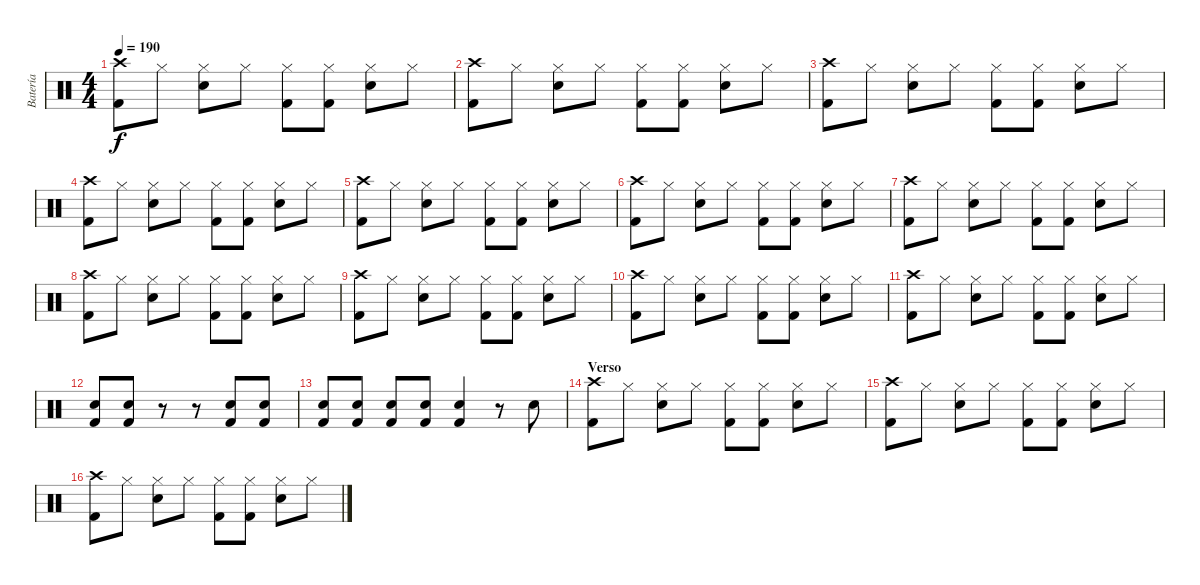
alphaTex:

\track ("Batería" "Batería") {instrument percussion}
\staff {score}
\articulation defaults
\ts (4 4)
\tempo 190
\clef neutral
\ks c
("Crash high (hit)" "Kick (hit) 2").8{dy f} "Hi-Hat (closed)".8 ("Hi-Hat (closed)" "Snare (hit) 2").8 "Hi-Hat (closed)".8 ("Hi-Hat (closed)" "Kick (hit) 2").8 ("Hi-Hat (closed)" "Kick (hit) 2").8 ("Hi-Hat (closed)" "Snare (hit) 2").8 "Hi-Hat (closed)".8 |
("Crash high (hit)" "Kick (hit) 2").8 "Hi-Hat (closed)".8 ("Hi-Hat (closed)" "Snare (hit) 2").8 "Hi-Hat (closed)".8 ("Hi-Hat (closed)" "Kick (hit) 2").8 ("Hi-Hat (closed)" "Kick (hit) 2").8 ("Hi-Hat (closed)" "Snare (hit) 2").8 "Hi-Hat (closed)".8 |
("Crash high (hit)" "Kick (hit) 2").8 "Hi-Hat (closed)".8 ("Hi-Hat (closed)" "Snare (hit) 2").8 "Hi-Hat (closed)".8 ("Hi-Hat (closed)" "Kick (hit) 2").8 ("Hi-Hat (closed)" "Kick (hit) 2").8 ("Hi-Hat (closed)" "Snare (hit) 2").8 "Hi-Hat (closed)".8 |
("Crash high (hit)" "Kick (hit) 2").8 "Hi-Hat (closed)".8 ("Hi-Hat (closed)" "Snare (hit) 2").8 "Hi-Hat (closed)".8 ("Hi-Hat (closed)" "Kick (hit) 2").8 ("Hi-Hat (closed)" "Kick (hit) 2").8 ("Hi-Hat (closed)" "Snare (hit) 2").8 "Hi-Hat (closed)".8 |
("Crash high (hit)" "Kick (hit) 2").8 "Hi-Hat (closed)".8 ("Hi-Hat (closed)" "Snare (hit) 2").8 "Hi-Hat (closed)".8 ("Hi-Hat (closed)" "Kick (hit) 2").8 ("Hi-Hat (closed)" "Kick (hit) 2").8 ("Hi-Hat (closed)" "Snare (hit) 2").8 "Hi-Hat (closed)".8 |
("Crash high (hit)" "Kick (hit) 2").8 "Hi-Hat (closed)".8 ("Hi-Hat (closed)" "Snare (hit) 2").8 "Hi-Hat (closed)".8 ("Hi-Hat (closed)" "Kick (hit) 2").8 ("Hi-Hat (closed)" "Kick (hit) 2").8 ("Hi-Hat (closed)" "Snare (hit) 2").8 "Hi-Hat (closed)".8 |
("Crash high (hit)" "Kick (hit) 2").8 "Hi-Hat (closed)".8 ("Hi-Hat (closed)" "Snare (hit) 2").8 "Hi-Hat (closed)".8 ("Hi-Hat (closed)" "Kick (hit) 2").8 ("Hi-Hat (closed)" "Kick (hit) 2").8 ("Hi-Hat (closed)" "Snare (hit) 2").8 "Hi-Hat (closed)".8 |
("Crash high (hit)" "Kick (hit) 2").8 "Hi-Hat (closed)".8 ("Hi-Hat (closed)" "Snare (hit) 2").8 "Hi-Hat (closed)".8 ("Hi-Hat (closed)" "Kick (hit) 2").8 ("Hi-Hat (closed)" "Kick (hit) 2").8 ("Hi-Hat (closed)" "Snare (hit) 2").8 "Hi-Hat (closed)".8 |
("Crash high (hit)" "Kick (hit) 2").8 "Hi-Hat (closed)".8 ("Hi-Hat (closed)" "Snare (hit) 2").8 "Hi-Hat (closed)".8 ("Hi-Hat (closed)" "Kick (hit) 2").8 ("Hi-Hat (closed)" "Kick (hit) 2").8 ("Hi-Hat (closed)" "Snare (hit) 2").8 "Hi-Hat (closed)".8 |
("Crash high (hit)" "Kick (hit) 2").8 "Hi-Hat (closed)".8 ("Hi-Hat (closed)" "Snare (hit) 2").8 "Hi-Hat (closed)".8 ("Hi-Hat (closed)" "Kick (hit) 2").8 ("Hi-Hat (closed)" "Kick (hit) 2").8 ("Hi-Hat (closed)" "Snare (hit) 2").8 "Hi-Hat (closed)".8 |
("Crash high (hit)" "Kick (hit) 2").8 "Hi-Hat (closed)".8 ("Hi-Hat (closed)" "Snare (hit) 2").8 "Hi-Hat (closed)".8 ("Hi-Hat (closed)" "Kick (hit) 2").8 ("Hi-Hat (closed)" "Kick (hit) 2").8 ("Hi-Hat (closed)" "Snare (hit) 2").8 "Hi-Hat (closed)".8 |
("Snare (hit) 2" "Kick (hit) 2").8 ("Snare (hit) 2" "Kick (hit) 2").8 r.8 r.8 ("Snare (hit) 2" "Kick (hit) 2").8 ("Snare (hit) 2" "Kick (hit) 2").8 |
("Snare (hit) 2" "Kick (hit) 2").8 ("Snare (hit) 2" "Kick (hit) 2").8 ("Snare (hit) 2" "Kick (hit) 2").8 ("Snare (hit) 2" "Kick (hit) 2").8 ("Snare (hit) 2" "Kick (hit) 2").4 r.8 "Snare (hit) 2".8 |
\section ("" "Verso")
("Crash high (hit)" "Kick (hit) 2").8 "Hi-Hat (closed)".8 ("Hi-Hat (closed)" "Snare (hit) 2").8 "Hi-Hat (closed)".8 ("Hi-Hat (closed)" "Kick (hit) 2").8 ("Hi-Hat (closed)" "Kick (hit) 2").8 ("Hi-Hat (closed)" "Snare (hit) 2").8 "Hi-Hat (closed)".8 |
("Crash high (hit)" "Kick (hit) 2").8 "Hi-Hat (closed)".8 ("Hi-Hat (closed)" "Snare (hit) 2").8 "Hi-Hat (closed)".8 ("Hi-Hat (closed)" "Kick (hit) 2").8 ("Hi-Hat (closed)" "Kick (hit) 2").8 ("Hi-Hat (closed)" "Snare (hit) 2").8 "Hi-Hat (closed)".8 |
("Crash high (hit)" "Kick (hit) 2").8 "Hi-Hat (closed)".8 ("Hi-Hat (closed)" "Snare (hit) 2").8 "Hi-Hat (closed)".8 ("Hi-Hat (closed)" "Kick (hit) 2").8 ("Hi-Hat (closed)" "Kick (hit) 2").8 ("Hi-Hat (closed)" "Snare (hit) 2").8 "Hi-Hat (closed)".8
